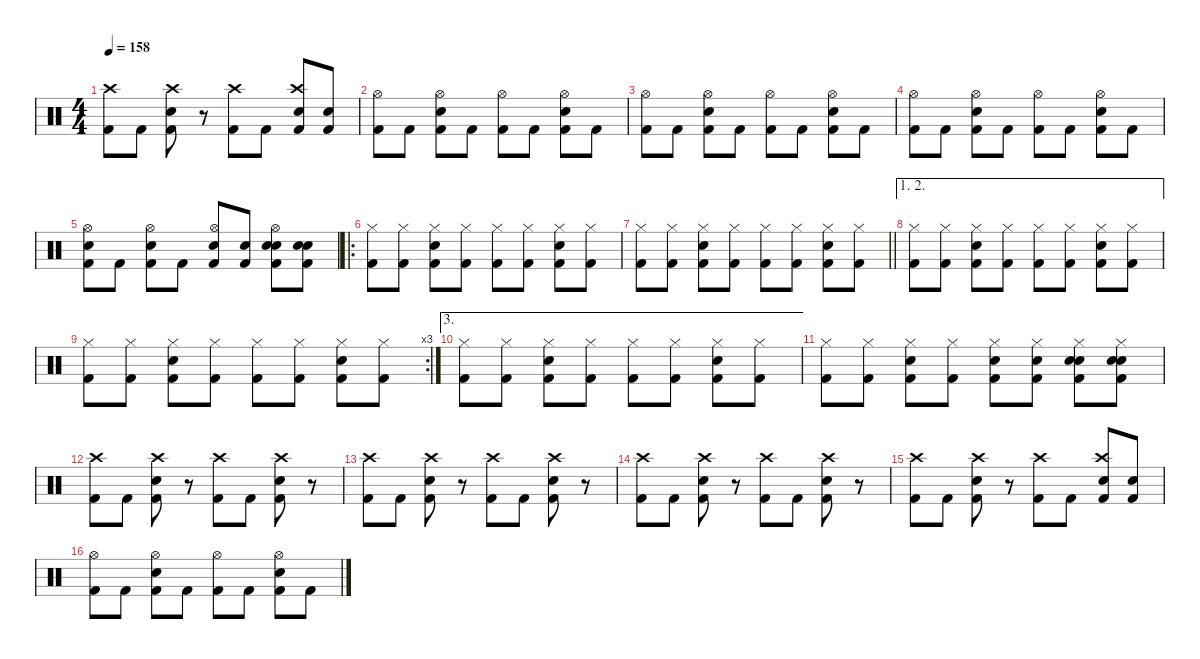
\defaultSystemsLayout 4
\hideDynamics
\bracketExtendMode nobrackets
\singleTrackTrackNamePolicy hidden
\multiTrackTrackNamePolicy hidden
\firstSystemTrackNameMode fullname
\firstSystemTrackNameOrientation horizontal
\otherSystemsTrackNameOrientation horizontal
\track ("Drums" "drm.") {instrument percussion}
\staff {score}
\articulation defaults
\ts (4 4)
\tempo 158
\clef neutral
\ks c
("Crash high (hit)" "Kick (hit) 2").8{dy f beam Down} "Kick (hit) 2".8{beam Down} ("Crash high (hit)" "Snare (hit) 2" "Kick (hit) 2").8{beam Down} r.8{beam Down} ("Crash high (hit)" "Kick (hit) 2").8{beam Down} "Kick (hit) 2".8{beam Down} ("Crash high (hit)" "Snare (hit) 2" "Kick (hit) 2").8{beam Up} ("Snare (hit) 2" "Kick (hit) 2").8{beam Up} |
("Hi-Hat (open)" "Kick (hit) 2").8{beam Down} "Kick (hit) 2".8{beam Down} ("Hi-Hat (open)" "Snare (hit) 2" "Kick (hit) 2").8{beam Down} "Kick (hit) 2".8{beam Down} ("Hi-Hat (open)" "Kick (hit) 2").8{beam Down} "Kick (hit) 2".8{beam Down} ("Hi-Hat (open)" "Kick (hit) 2" "Snare (hit) 2").8{beam Down} "Kick (hit) 2".8{beam Down} |
("Hi-Hat (open)" "Kick (hit) 2").8{beam Down} "Kick (hit) 2".8{beam Down} ("Hi-Hat (open)" "Snare (hit) 2" "Kick (hit) 2").8{beam Down} "Kick (hit) 2".8{beam Down} ("Hi-Hat (open)" "Kick (hit) 2").8{beam Down} "Kick (hit) 2".8{beam Down} ("Hi-Hat (open)" "Kick (hit) 2" "Snare (hit) 2").8{beam Down} "Kick (hit) 2".8{beam Down} |
("Hi-Hat (open)" "Kick (hit) 2").8{beam Down} "Kick (hit) 2".8{beam Down} ("Hi-Hat (open)" "Snare (hit) 2" "Kick (hit) 2").8{beam Down} "Kick (hit) 2".8{beam Down} ("Hi-Hat (open)" "Kick (hit) 2").8{beam Down} "Kick (hit) 2".8{beam Down} ("Hi-Hat (open)" "Kick (hit) 2" "Snare (hit) 2").8{beam Down} "Kick (hit) 2".8{beam Down} |
("Hi-Hat (open)" "Snare (hit) 2" "Kick (hit) 2").8{beam Down} "Kick (hit) 2".8{beam Down} ("Hi-Hat (open)" "Snare (hit) 2" "Kick (hit) 2").8{beam Down} "Kick (hit) 2".8{beam Down} ("Hi-Hat (open)" "Snare (hit) 2" "Kick (hit) 2").8{beam Up} ("Snare (hit) 2" "Kick (hit) 2").8{beam Up} ("Hi-Hat (open)" "Snare (hit) 2" "Kick (hit) 2" "Snare (hit) 2").8{beam Down} ("Snare (hit) 2" "Snare (hit) 2" "Kick (hit) 2").8{beam Down} |
\ro
("Hi-Hat (closed)" "Kick (hit) 2").8{beam Down} ("Hi-Hat (closed)" "Kick (hit) 2").8{beam Down} ("Hi-Hat (closed)" "Snare (hit) 2" "Kick (hit) 2").8{beam Down} ("Hi-Hat (closed)" "Kick (hit) 2").8{beam Down} ("Hi-Hat (closed)" "Kick (hit) 2").8{beam Down} ("Hi-Hat (closed)" "Kick (hit) 2").8{beam Down} ("Hi-Hat (closed)" "Kick (hit) 2" "Snare (hit) 2").8{beam Down} ("Hi-Hat (closed)" "Kick (hit) 2").8{beam Down} |
\barLineRight lightlight
("Hi-Hat (closed)" "Kick (hit) 2").8{beam Down} ("Hi-Hat (closed)" "Kick (hit) 2").8{beam Down} ("Hi-Hat (closed)" "Snare (hit) 2" "Kick (hit) 2").8{beam Down} ("Hi-Hat (closed)" "Kick (hit) 2").8{beam Down} ("Hi-Hat (closed)" "Kick (hit) 2").8{beam Down} ("Hi-Hat (closed)" "Kick (hit) 2").8{beam Down} ("Hi-Hat (closed)" "Kick (hit) 2" "Snare (hit) 2").8{beam Down} ("Hi-Hat (closed)" "Kick (hit) 2").8{beam Down} |
\ae (1 2)
("Hi-Hat (closed)" "Kick (hit) 2").8{beam Down} ("Hi-Hat (closed)" "Kick (hit) 2").8{beam Down} ("Hi-Hat (closed)" "Snare (hit) 2" "Kick (hit) 2").8{beam Down} ("Hi-Hat (closed)" "Kick (hit) 2").8{beam Down} ("Hi-Hat (closed)" "Kick (hit) 2").8{beam Down} ("Hi-Hat (closed)" "Kick (hit) 2").8{beam Down} ("Hi-Hat (closed)" "Kick (hit) 2" "Snare (hit) 2").8{beam Down} ("Hi-Hat (closed)" "Kick (hit) 2").8{beam Down} |
\rc 3
("Hi-Hat (closed)" "Kick (hit) 2").8{beam Down} ("Hi-Hat (closed)" "Kick (hit) 2").8{beam Down} ("Hi-Hat (closed)" "Snare (hit) 2" "Kick (hit) 2").8{beam Down} ("Hi-Hat (closed)" "Kick (hit) 2").8{beam Down} ("Hi-Hat (closed)" "Kick (hit) 2").8{beam Down} ("Hi-Hat (closed)" "Kick (hit) 2").8{beam Down} ("Hi-Hat (closed)" "Kick (hit) 2" "Snare (hit) 2").8{beam Down} ("Hi-Hat (closed)" "Kick (hit) 2").8{beam Down} |
\ae 3
("Hi-Hat (closed)" "Kick (hit) 2").8{beam Down} ("Hi-Hat (closed)" "Kick (hit) 2").8{beam Down} ("Hi-Hat (closed)" "Snare (hit) 2" "Kick (hit) 2").8{beam Down} ("Hi-Hat (closed)" "Kick (hit) 2").8{beam Down} ("Hi-Hat (closed)" "Kick (hit) 2").8{beam Down} ("Hi-Hat (closed)" "Kick (hit) 2").8{beam Down} ("Hi-Hat (closed)" "Kick (hit) 2" "Snare (hit) 2").8{beam Down} ("Hi-Hat (closed)" "Kick (hit) 2").8{beam Down} |
("Hi-Hat (closed)" "Kick (hit) 2").8{beam Down} ("Hi-Hat (closed)" "Kick (hit) 2").8{beam Down} ("Hi-Hat (closed)" "Snare (hit) 2" "Kick (hit) 2").8{beam Down} ("Hi-Hat (closed)" "Kick (hit) 2").8{beam Down} ("Hi-Hat (closed)" "Snare (hit) 2" "Kick (hit) 2").8{beam Down} ("Hi-Hat (closed)" "Snare (hit) 2" "Kick (hit) 2").8{beam Down} ("Hi-Hat (closed)" "Snare (hit) 2" "Kick (hit) 2" "Snare (hit) 2").8{beam Down} ("Hi-Hat (closed)" "Snare (hit) 2" "Snare (hit) 2" "Kick (hit) 2").8{beam Down} |
("Crash high (hit)" "Kick (hit) 2").8{beam Down} "Kick (hit) 2".8{beam Down} ("Crash high (hit)" "Snare (hit) 2" "Kick (hit) 2").8{beam Down} r.8{beam Down} ("Crash high (hit)" "Kick (hit) 2").8{beam Down} "Kick (hit) 2".8{beam Down} ("Crash high (hit)" "Snare (hit) 2" "Kick (hit) 2").8{beam Down} r.8{beam Down} |
("Crash high (hit)" "Kick (hit) 2").8{beam Down} "Kick (hit) 2".8{beam Down} ("Crash high (hit)" "Snare (hit) 2" "Kick (hit) 2").8{beam Down} r.8{beam Down} ("Crash high (hit)" "Kick (hit) 2").8{beam Down} "Kick (hit) 2".8{beam Down} ("Crash high (hit)" "Snare (hit) 2" "Kick (hit) 2").8{beam Down} r.8{beam Down} |
("Crash high (hit)" "Kick (hit) 2").8{beam Down} "Kick (hit) 2".8{beam Down} ("Crash high (hit)" "Snare (hit) 2" "Kick (hit) 2").8{beam Down} r.8{beam Down} ("Crash high (hit)" "Kick (hit) 2").8{beam Down} "Kick (hit) 2".8{beam Down} ("Crash high (hit)" "Snare (hit) 2" "Kick (hit) 2").8{beam Down} r.8{beam Down} |
("Crash high (hit)" "Kick (hit) 2").8{beam Down} "Kick (hit) 2".8{beam Down} ("Crash high (hit)" "Snare (hit) 2" "Kick (hit) 2").8{beam Down} r.8{beam Down} ("Crash high (hit)" "Kick (hit) 2").8{beam Down} "Kick (hit) 2".8{beam Down} ("Crash high (hit)" "Snare (hit) 2" "Kick (hit) 2").8{beam Up} ("Snare (hit) 2" "Kick (hit) 2").8{beam Up} |
("Hi-Hat (open)" "Kick (hit) 2").8{beam Down} "Kick (hit) 2".8{beam Down} ("Hi-Hat (open)" "Snare (hit) 2" "Kick (hit) 2").8{beam Down} "Kick (hit) 2".8{beam Down} ("Hi-Hat (open)" "Kick (hit) 2").8{beam Down} "Kick (hit) 2".8{beam Down} ("Hi-Hat (open)" "Kick (hit) 2" "Snare (hit) 2").8{beam Down} "Kick (hit) 2".8{beam Down}
